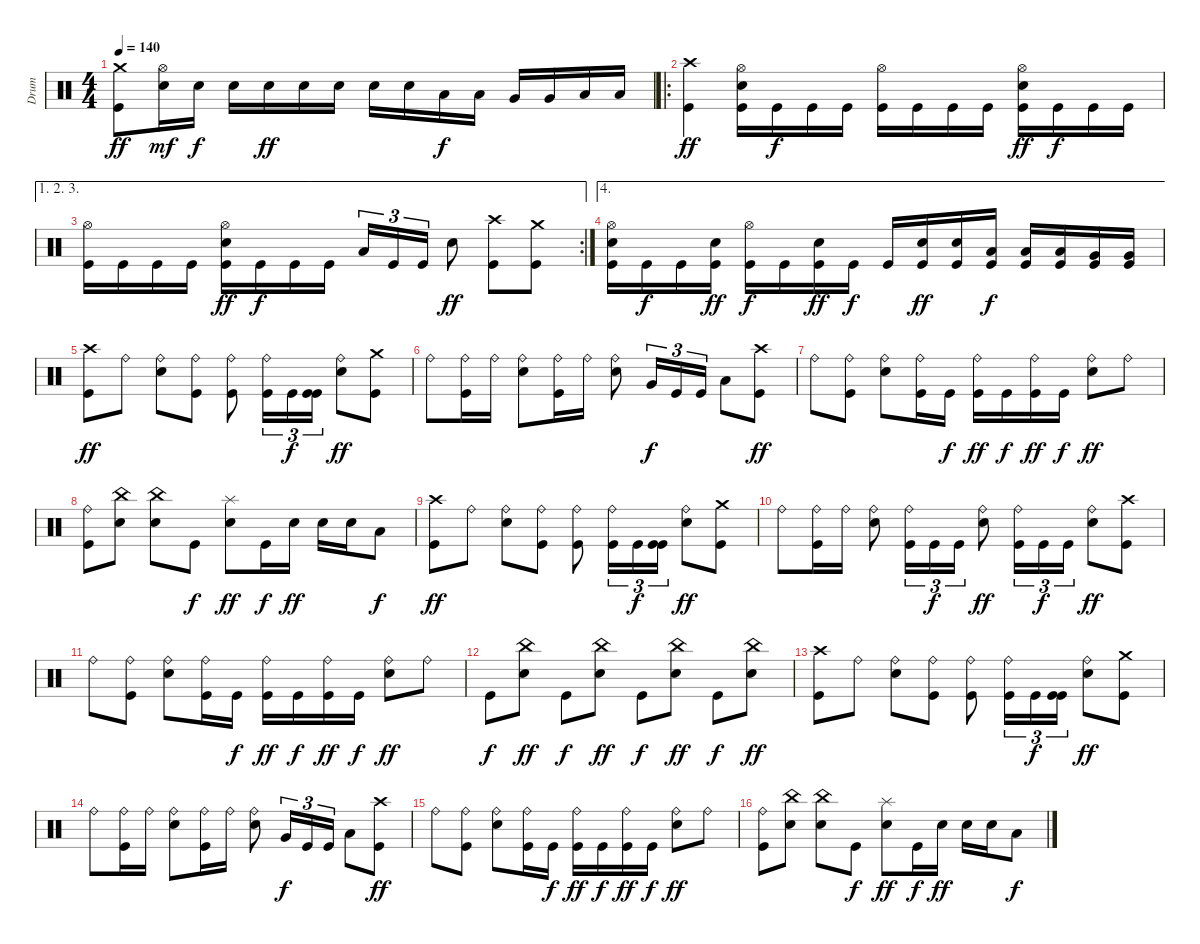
\track ("Drum" "Drum") {instrument percussion}
\staff {score}
\articulation defaults
\ts (4 4)
\tempo 140
\clef neutral
\ks c
("Kick (hit)" "Crash medium (hit)").8{dy ff} ("Electric Snare (hit)" "Hi-Hat (open)").16{dy mf} "Electric Snare (hit)".16{dy f} "Electric Snare (hit)".16 "Electric Snare (hit)".16{dy ff} "Electric Snare (hit)".16 "Electric Snare (hit)".16 "Electric Snare (hit)".16 "Electric Snare (hit)".16 "Low Tom (hit)".16{dy f} "Low Tom (hit)".16 "Very Low Tom (hit)".16 "Very Low Tom (hit)".16 "Low Floor Tom (hit)".16 "Low Floor Tom (hit)".16 |
\ro
("Kick (hit)" "Crash high (hit)").4{dy ff} ("Kick (hit)" "Electric Snare (hit)" "Hi-Hat (open)").16 "Kick (hit)".16{dy f} "Kick (hit)".16 "Kick (hit)".16 ("Kick (hit)" "Hi-Hat (open)").16 "Kick (hit)".16 "Kick (hit)".16 "Kick (hit)".16 ("Kick (hit)" "Electric Snare (hit)" "Hi-Hat (open)").16{dy ff} "Kick (hit)".16{dy f} "Kick (hit)".16 "Kick (hit)".16 |
\ae (1 2 3)
\rc 2
("Kick (hit)" "Hi-Hat (open)").16 "Kick (hit)".16 "Kick (hit)".16 "Kick (hit)".16 ("Kick (hit)" "Electric Snare (hit)" "Hi-Hat (open)").16{dy ff} "Kick (hit)".16{dy f} "Kick (hit)".16 "Kick (hit)".16 "Low Floor Tom (hit)".16{tu (3 2)} "Kick (hit)".16{tu (3 2)} "Kick (hit)".16{tu (3 2)} "Electric Snare (hit)".8{dy ff} ("Kick (hit)" "Crash high (hit)").8 ("Kick (hit)" "Crash medium (hit)").8 |
\ae 4
("Kick (hit)" "Electric Snare (hit)" "Hi-Hat (open)").16 "Kick (hit)".16{dy f} "Kick (hit)".16 ("Kick (hit)" "Electric Snare (hit)").16{dy ff} ("Kick (hit)" "Hi-Hat (open)").16{dy f} "Kick (hit)".16 ("Kick (hit)" "Electric Snare (hit)").16{dy ff} "Kick (hit)".16{dy f} "Kick (hit)".16 ("Kick (hit)" "Electric Snare (hit)").16{dy ff} ("Kick (hit)" "Electric Snare (hit)").16 ("Kick (hit)" "Low Tom (hit)").16{dy f} ("Kick (hit)" "Low Tom (hit)").16 ("Kick (hit)" "Low Tom (hit)").16 ("Kick (hit)" "Very Low Tom (hit)").16 ("Kick (hit)" "Very Low Tom (hit)").16 |
("Kick (hit)" "Crash high (hit)").8{dy ff} "Ride (bell)".8 ("Electric Snare (hit)" "Ride (bell)").8 ("Kick (hit)" "Ride (bell)").8 ("Kick (hit)" "Ride (bell)").8 ("Kick (hit)" "Ride (bell)").16{tu (3 2)} "Kick (hit)".16{tu (3 2) dy f} ("Kick (hit)" "Kick (hit)").16{tu (3 2)} ("Electric Snare (hit)" "Ride (bell)").8{dy ff} ("Kick (hit)" "Crash medium (hit)").8 |
"Ride (bell)".8 ("Kick (hit)" "Ride (bell)").16 "Ride (bell)".16 ("Electric Snare (hit)" "Ride (bell)").8 ("Kick (hit)" "Ride (bell)").16 "Ride (bell)".16 ("Electric Snare (hit)" "Ride (bell)").8 "Very Low Tom (hit)".16{tu (3 2) dy f} "Kick (hit)".16{tu (3 2)} "Kick (hit)".16{tu (3 2)} "Low Floor Tom (hit)".8 ("Kick (hit)" "Crash high (hit)").8{dy ff} |
"Ride (bell)".8 ("Kick (hit)" "Ride (bell)").8 ("Electric Snare (hit)" "Ride (bell)").8 ("Kick (hit)" "Ride (bell)").16 "Kick (hit)".16{dy f} ("Kick (hit)" "Ride (bell)").16{dy ff} "Kick (hit)".16{dy f} ("Kick (hit)" "Ride (bell)").16{dy ff} "Kick (hit)".16{dy f} ("Electric Snare (hit)" "Ride (bell)").8{dy ff} "Ride (bell)".8 |
("Kick (hit)" "Ride (bell)").8 ("Electric Snare (hit)" "China (hit)").8 ("Electric Snare (hit)" "China (hit)").8 "Kick (hit)".8{dy f} ("Electric Snare (hit)" "Splash (hit)").8{dy ff} "Kick (hit)".16{dy f} "Electric Snare (hit)".16{dy ff} "Electric Snare (hit)".16 "Electric Snare (hit)".16 "Low Tom (hit)".8{dy f} |
("Kick (hit)" "Crash high (hit)").8{dy ff} "Ride (bell)".8 ("Electric Snare (hit)" "Ride (bell)").8 ("Kick (hit)" "Ride (bell)").8 ("Kick (hit)" "Ride (bell)").8 ("Kick (hit)" "Ride (bell)").16{tu (3 2)} "Kick (hit)".16{tu (3 2) dy f} ("Kick (hit)" "Kick (hit)").16{tu (3 2)} ("Electric Snare (hit)" "Ride (bell)").8{dy ff} ("Kick (hit)" "Crash medium (hit)").8 |
"Ride (bell)".8 ("Kick (hit)" "Ride (bell)").16 "Ride (bell)".16 ("Electric Snare (hit)" "Ride (bell)").8 ("Kick (hit)" "Ride (bell)").16{tu (3 2)} "Kick (hit)".16{tu (3 2) dy f} "Kick (hit)".16{tu (3 2)} ("Electric Snare (hit)" "Ride (bell)").8{dy ff} ("Kick (hit)" "Ride (bell)").16{tu (3 2)} "Kick (hit)".16{tu (3 2) dy f} "Kick (hit)".16{tu (3 2)} ("Electric Snare (hit)" "Ride (bell)").8{dy ff} ("Kick (hit)" "Crash high (hit)").8 |
"Ride (bell)".8 ("Kick (hit)" "Ride (bell)").8 ("Electric Snare (hit)" "Ride (bell)").8 ("Kick (hit)" "Ride (bell)").16 "Kick (hit)".16{dy f} ("Kick (hit)" "Ride (bell)").16{dy ff} "Kick (hit)".16{dy f} ("Kick (hit)" "Ride (bell)").16{dy ff} "Kick (hit)".16{dy f} ("Electric Snare (hit)" "Ride (bell)").8{dy ff} "Ride (bell)".8 |
"Kick (hit)".8{dy f} ("Electric Snare (hit)" "China (hit)").8{dy ff} "Kick (hit)".8{dy f} ("Electric Snare (hit)" "China (hit)").8{dy ff} "Kick (hit)".8{dy f} ("Electric Snare (hit)" "China (hit)").8{dy ff} "Kick (hit)".8{dy f} ("Electric Snare (hit)" "China (hit)").8{dy ff} |
("Kick (hit)" "Crash high (hit)").8 "Ride (bell)".8 ("Electric Snare (hit)" "Ride (bell)").8 ("Kick (hit)" "Ride (bell)").8 ("Kick (hit)" "Ride (bell)").8 ("Kick (hit)" "Ride (bell)").16{tu (3 2)} "Kick (hit)".16{tu (3 2) dy f} ("Kick (hit)" "Kick (hit)").16{tu (3 2)} ("Electric Snare (hit)" "Ride (bell)").8{dy ff} ("Kick (hit)" "Crash medium (hit)").8 |
"Ride (bell)".8 ("Kick (hit)" "Ride (bell)").16 "Ride (bell)".16 ("Electric Snare (hit)" "Ride (bell)").8 ("Kick (hit)" "Ride (bell)").16 "Ride (bell)".16 ("Electric Snare (hit)" "Ride (bell)").8 "Very Low Tom (hit)".16{tu (3 2) dy f} "Kick (hit)".16{tu (3 2)} "Kick (hit)".16{tu (3 2)} "Low Floor Tom (hit)".8 ("Kick (hit)" "Crash high (hit)").8{dy ff} |
"Ride (bell)".8 ("Kick (hit)" "Ride (bell)").8 ("Electric Snare (hit)" "Ride (bell)").8 ("Kick (hit)" "Ride (bell)").16 "Kick (hit)".16{dy f} ("Kick (hit)" "Ride (bell)").16{dy ff} "Kick (hit)".16{dy f} ("Kick (hit)" "Ride (bell)").16{dy ff} "Kick (hit)".16{dy f} ("Electric Snare (hit)" "Ride (bell)").8{dy ff} "Ride (bell)".8 |
("Kick (hit)" "Ride (bell)").8 ("Electric Snare (hit)" "China (hit)").8 ("Electric Snare (hit)" "China (hit)").8 "Kick (hit)".8{dy f} ("Electric Snare (hit)" "Splash (hit)").8{dy ff} "Kick (hit)".16{dy f} "Electric Snare (hit)".16{dy ff} "Electric Snare (hit)".16 "Electric Snare (hit)".16 "Low Tom (hit)".8{dy f}
